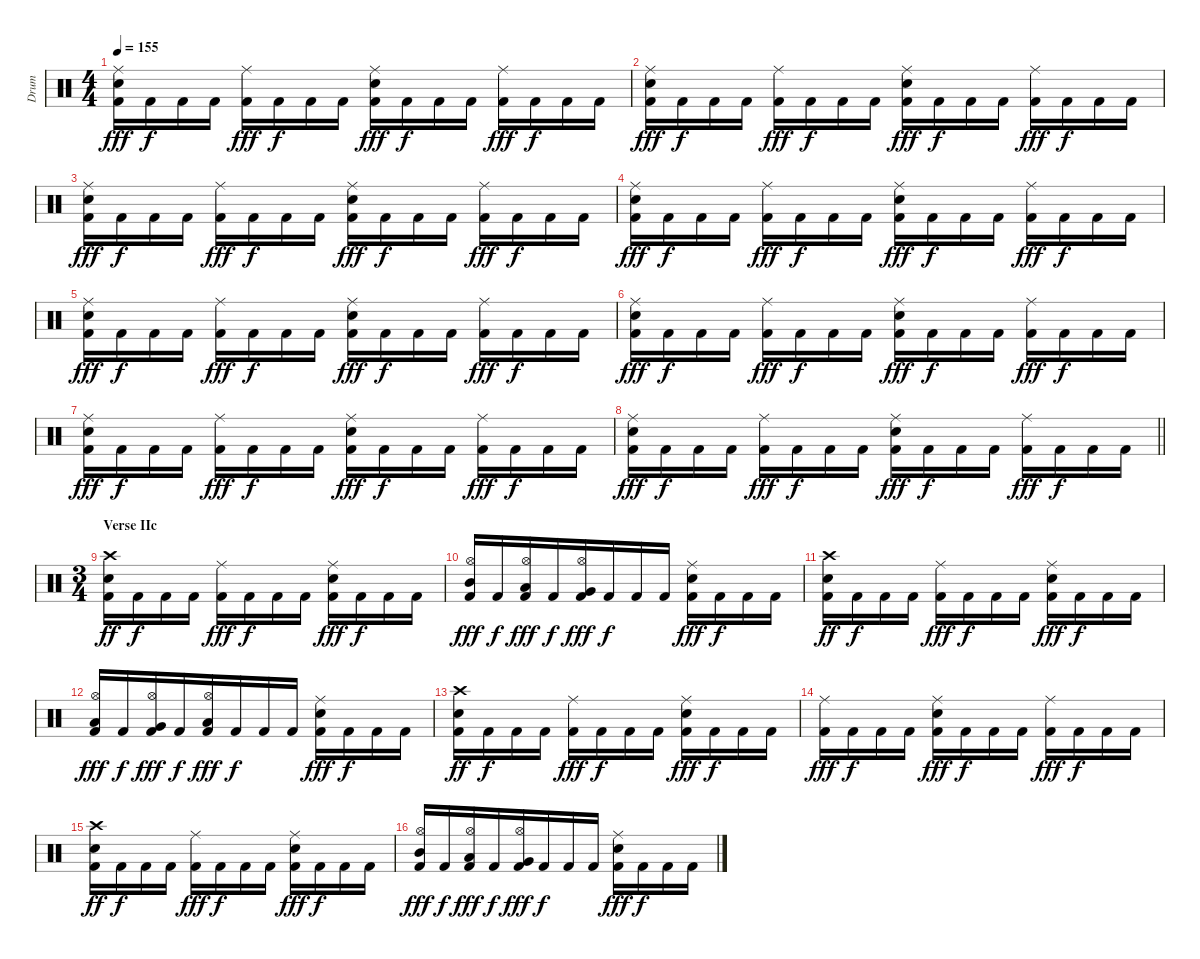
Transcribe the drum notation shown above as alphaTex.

\track ("Drum" "Drum") {instrument percussion}
\staff {score}
\articulation defaults
\ts (4 4)
\tempo 155
\clef neutral
\ks c
("Ride (middle)" "Snare (hit) 2" "Kick (hit) 2").16{dy fff} "Kick (hit) 2".16{dy f} "Kick (hit) 2".16 "Kick (hit) 2".16 ("Ride (middle)" "Kick (hit) 2").16{dy fff} "Kick (hit) 2".16{dy f} "Kick (hit) 2".16 "Kick (hit) 2".16 ("Ride (middle)" "Snare (hit) 2" "Kick (hit) 2").16{dy fff} "Kick (hit) 2".16{dy f} "Kick (hit) 2".16 "Kick (hit) 2".16 ("Ride (middle)" "Kick (hit) 2").16{dy fff} "Kick (hit) 2".16{dy f} "Kick (hit) 2".16 "Kick (hit) 2".16 |
("Ride (middle)" "Snare (hit) 2" "Kick (hit) 2").16{dy fff} "Kick (hit) 2".16{dy f} "Kick (hit) 2".16 "Kick (hit) 2".16 ("Ride (middle)" "Kick (hit) 2").16{dy fff} "Kick (hit) 2".16{dy f} "Kick (hit) 2".16 "Kick (hit) 2".16 ("Ride (middle)" "Snare (hit) 2" "Kick (hit) 2").16{dy fff} "Kick (hit) 2".16{dy f} "Kick (hit) 2".16 "Kick (hit) 2".16 ("Ride (middle)" "Kick (hit) 2").16{dy fff} "Kick (hit) 2".16{dy f} "Kick (hit) 2".16 "Kick (hit) 2".16 |
("Ride (middle)" "Snare (hit) 2" "Kick (hit) 2").16{dy fff} "Kick (hit) 2".16{dy f} "Kick (hit) 2".16 "Kick (hit) 2".16 ("Ride (middle)" "Kick (hit) 2").16{dy fff} "Kick (hit) 2".16{dy f} "Kick (hit) 2".16 "Kick (hit) 2".16 ("Ride (middle)" "Snare (hit) 2" "Kick (hit) 2").16{dy fff} "Kick (hit) 2".16{dy f} "Kick (hit) 2".16 "Kick (hit) 2".16 ("Ride (middle)" "Kick (hit) 2").16{dy fff} "Kick (hit) 2".16{dy f} "Kick (hit) 2".16 "Kick (hit) 2".16 |
("Ride (middle)" "Snare (hit) 2" "Kick (hit) 2").16{dy fff} "Kick (hit) 2".16{dy f} "Kick (hit) 2".16 "Kick (hit) 2".16 ("Ride (middle)" "Kick (hit) 2").16{dy fff} "Kick (hit) 2".16{dy f} "Kick (hit) 2".16 "Kick (hit) 2".16 ("Ride (middle)" "Snare (hit) 2" "Kick (hit) 2").16{dy fff} "Kick (hit) 2".16{dy f} "Kick (hit) 2".16 "Kick (hit) 2".16 ("Ride (middle)" "Kick (hit) 2").16{dy fff} "Kick (hit) 2".16{dy f} "Kick (hit) 2".16 "Kick (hit) 2".16 |
("Ride (middle)" "Snare (hit) 2" "Kick (hit) 2").16{dy fff} "Kick (hit) 2".16{dy f} "Kick (hit) 2".16 "Kick (hit) 2".16 ("Ride (middle)" "Kick (hit) 2").16{dy fff} "Kick (hit) 2".16{dy f} "Kick (hit) 2".16 "Kick (hit) 2".16 ("Ride (middle)" "Snare (hit) 2" "Kick (hit) 2").16{dy fff} "Kick (hit) 2".16{dy f} "Kick (hit) 2".16 "Kick (hit) 2".16 ("Ride (middle)" "Kick (hit) 2").16{dy fff} "Kick (hit) 2".16{dy f} "Kick (hit) 2".16 "Kick (hit) 2".16 |
("Ride (middle)" "Snare (hit) 2" "Kick (hit) 2").16{dy fff} "Kick (hit) 2".16{dy f} "Kick (hit) 2".16 "Kick (hit) 2".16 ("Ride (middle)" "Kick (hit) 2").16{dy fff} "Kick (hit) 2".16{dy f} "Kick (hit) 2".16 "Kick (hit) 2".16 ("Ride (middle)" "Snare (hit) 2" "Kick (hit) 2").16{dy fff} "Kick (hit) 2".16{dy f} "Kick (hit) 2".16 "Kick (hit) 2".16 ("Ride (middle)" "Kick (hit) 2").16{dy fff} "Kick (hit) 2".16{dy f} "Kick (hit) 2".16 "Kick (hit) 2".16 |
("Ride (middle)" "Snare (hit) 2" "Kick (hit) 2").16{dy fff} "Kick (hit) 2".16{dy f} "Kick (hit) 2".16 "Kick (hit) 2".16 ("Ride (middle)" "Kick (hit) 2").16{dy fff} "Kick (hit) 2".16{dy f} "Kick (hit) 2".16 "Kick (hit) 2".16 ("Ride (middle)" "Snare (hit) 2" "Kick (hit) 2").16{dy fff} "Kick (hit) 2".16{dy f} "Kick (hit) 2".16 "Kick (hit) 2".16 ("Ride (middle)" "Kick (hit) 2").16{dy fff} "Kick (hit) 2".16{dy f} "Kick (hit) 2".16 "Kick (hit) 2".16 |
\barLineRight lightlight
("Ride (middle)" "Snare (hit) 2" "Kick (hit) 2").16{dy fff} "Kick (hit) 2".16{dy f} "Kick (hit) 2".16 "Kick (hit) 2".16 ("Ride (middle)" "Kick (hit) 2").16{dy fff} "Kick (hit) 2".16{dy f} "Kick (hit) 2".16 "Kick (hit) 2".16 ("Ride (middle)" "Snare (hit) 2" "Kick (hit) 2").16{dy fff} "Kick (hit) 2".16{dy f} "Kick (hit) 2".16 "Kick (hit) 2".16 ("Ride (middle)" "Kick (hit) 2").16{dy fff} "Kick (hit) 2".16{dy f} "Kick (hit) 2".16 "Kick (hit) 2".16 |
\ts (3 4)
\section ("" "Verse IIc")
("Crash high (hit)" "Snare (hit) 2" "Kick (hit) 2").16{dy ff} "Kick (hit) 2".16{dy f} "Kick (hit) 2".16 "Kick (hit) 2".16 ("Ride (middle)" "Kick (hit) 2").16{dy fff} "Kick (hit) 2".16{dy f} "Kick (hit) 2".16 "Kick (hit) 2".16 ("Ride (middle)" "Snare (hit) 2" "Kick (hit) 2").16{dy fff} "Kick (hit) 2".16{dy f} "Kick (hit) 2".16 "Kick (hit) 2".16 |
("Hi-Hat (open)" "Mid Tom (hit)" "Kick (hit) 2").16{dy fff beam merge} "Kick (hit) 2".16{dy f beam merge} ("Hi-Hat (open)" "Low Tom (hit)" "Kick (hit) 2").16{dy fff} "Kick (hit) 2".16{dy f beam merge} ("Hi-Hat (open)" "Very Low Tom (hit)" "Kick (hit) 2").16{dy fff} "Kick (hit) 2".16{dy f} "Kick (hit) 2".16{beam merge} "Kick (hit) 2".16 ("Ride (middle)" "Snare (hit) 2" "Kick (hit) 2").16{dy fff} "Kick (hit) 2".16{dy f} "Kick (hit) 2".16 "Kick (hit) 2".16 |
("Crash high (hit)" "Snare (hit) 2" "Kick (hit) 2").16{dy ff} "Kick (hit) 2".16{dy f} "Kick (hit) 2".16 "Kick (hit) 2".16 ("Ride (middle)" "Kick (hit) 2").16{dy fff} "Kick (hit) 2".16{dy f} "Kick (hit) 2".16 "Kick (hit) 2".16 ("Ride (middle)" "Snare (hit) 2" "Kick (hit) 2").16{dy fff} "Kick (hit) 2".16{dy f} "Kick (hit) 2".16 "Kick (hit) 2".16 |
("Hi-Hat (open)" "Low Tom (hit)" "Kick (hit) 2").16{dy fff beam merge} "Kick (hit) 2".16{dy f beam merge} ("Hi-Hat (open)" "Very Low Tom (hit)" "Kick (hit) 2").16{dy fff} "Kick (hit) 2".16{dy f beam merge} ("Hi-Hat (open)" "Low Floor Tom (hit)" "Kick (hit) 2").16{dy fff} "Kick (hit) 2".16{dy f} "Kick (hit) 2".16{beam merge} "Kick (hit) 2".16 ("Ride (middle)" "Snare (hit) 2" "Kick (hit) 2").16{dy fff} "Kick (hit) 2".16{dy f} "Kick (hit) 2".16 "Kick (hit) 2".16 |
("Crash high (hit)" "Snare (hit) 2" "Kick (hit) 2").16{dy ff} "Kick (hit) 2".16{dy f} "Kick (hit) 2".16 "Kick (hit) 2".16 ("Ride (middle)" "Kick (hit) 2").16{dy fff} "Kick (hit) 2".16{dy f} "Kick (hit) 2".16 "Kick (hit) 2".16 ("Ride (middle)" "Snare (hit) 2" "Kick (hit) 2").16{dy fff} "Kick (hit) 2".16{dy f} "Kick (hit) 2".16 "Kick (hit) 2".16 |
("Ride (middle)" "Kick (hit) 2").16{dy fff} "Kick (hit) 2".16{dy f} "Kick (hit) 2".16 "Kick (hit) 2".16 ("Ride (middle)" "Snare (hit) 2" "Kick (hit) 2").16{dy fff} "Kick (hit) 2".16{dy f} "Kick (hit) 2".16 "Kick (hit) 2".16 ("Ride (middle)" "Kick (hit) 2").16{dy fff} "Kick (hit) 2".16{dy f} "Kick (hit) 2".16 "Kick (hit) 2".16 |
("Crash high (hit)" "Snare (hit) 2" "Kick (hit) 2").16{dy ff} "Kick (hit) 2".16{dy f} "Kick (hit) 2".16 "Kick (hit) 2".16 ("Ride (middle)" "Kick (hit) 2").16{dy fff} "Kick (hit) 2".16{dy f} "Kick (hit) 2".16 "Kick (hit) 2".16 ("Ride (middle)" "Snare (hit) 2" "Kick (hit) 2").16{dy fff} "Kick (hit) 2".16{dy f} "Kick (hit) 2".16 "Kick (hit) 2".16 |
("Hi-Hat (open)" "Mid Tom (hit)" "Kick (hit) 2").16{dy fff beam merge} "Kick (hit) 2".16{dy f beam merge} ("Hi-Hat (open)" "Low Tom (hit)" "Kick (hit) 2").16{dy fff} "Kick (hit) 2".16{dy f beam merge} ("Hi-Hat (open)" "Very Low Tom (hit)" "Kick (hit) 2").16{dy fff} "Kick (hit) 2".16{dy f} "Kick (hit) 2".16{beam merge} "Kick (hit) 2".16 ("Ride (middle)" "Snare (hit) 2" "Kick (hit) 2").16{dy fff} "Kick (hit) 2".16{dy f} "Kick (hit) 2".16 "Kick (hit) 2".16
